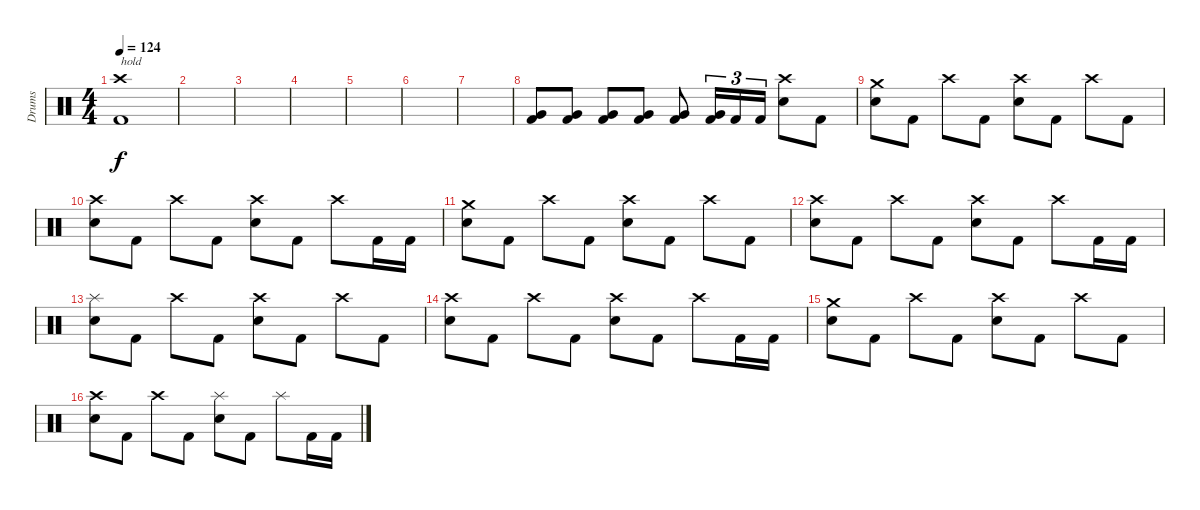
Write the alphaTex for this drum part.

\track ("Drums" "Drums") {instrument percussion}
\staff {score}
\articulation defaults
\ts (4 4)
\tempo 124
\clef neutral
\ks c
("Crash high (hit)" "Kick (hit) 2").1{txt "hold" dy f} |
|
|
|
|
|
|
("Very Low Tom (hit)" "Kick (hit) 2").8 ("Very Low Tom (hit)" "Kick (hit) 2").8 ("Very Low Tom (hit)" "Kick (hit) 2").8 ("Very Low Tom (hit)" "Kick (hit) 2").8 ("Very Low Tom (hit)" "Kick (hit) 2").8 ("Very Low Tom (hit)" "Kick (hit) 2").16{tu (3 2)} "Kick (hit) 2".16{tu (3 2)} "Kick (hit) 2".16{tu (3 2)} ("Crash high (hit)" "Electric Snare (hit)").8 "Kick (hit) 2".8 |
("Crash medium (hit)" "Electric Snare (hit)").8 "Kick (hit) 2".8 "Crash high (hit)".8 "Kick (hit) 2".8 ("Crash high (hit)" "Electric Snare (hit)").8 "Kick (hit) 2".8 "Crash high (hit)".8 "Kick (hit) 2".8 |
("Crash high (hit)" "Electric Snare (hit)").8 "Kick (hit) 2".8 "Crash high (hit)".8 "Kick (hit) 2".8 ("Crash high (hit)" "Electric Snare (hit)").8 "Kick (hit) 2".8 "Crash high (hit)".8 "Kick (hit) 2".16 "Kick (hit) 2".16 |
("Crash medium (hit)" "Electric Snare (hit)").8 "Kick (hit) 2".8 "Crash high (hit)".8 "Kick (hit) 2".8 ("Crash high (hit)" "Electric Snare (hit)").8 "Kick (hit) 2".8 "Crash high (hit)".8 "Kick (hit) 2".8 |
("Crash high (hit)" "Electric Snare (hit)").8 "Kick (hit) 2".8 "Crash high (hit)".8 "Kick (hit) 2".8 ("Crash high (hit)" "Electric Snare (hit)").8 "Kick (hit) 2".8 "Crash high (hit)".8 "Kick (hit) 2".16 "Kick (hit) 2".16 |
("Splash (hit)" "Electric Snare (hit)").8 "Kick (hit) 2".8 "Crash high (hit)".8 "Kick (hit) 2".8 ("Crash high (hit)" "Electric Snare (hit)").8 "Kick (hit) 2".8 "Crash high (hit)".8 "Kick (hit) 2".8 |
("Crash high (hit)" "Electric Snare (hit)").8 "Kick (hit) 2".8 "Crash high (hit)".8 "Kick (hit) 2".8 ("Crash high (hit)" "Electric Snare (hit)").8 "Kick (hit) 2".8 "Crash high (hit)".8 "Kick (hit) 2".16 "Kick (hit) 2".16 |
("Crash medium (hit)" "Electric Snare (hit)").8 "Kick (hit) 2".8 "Crash high (hit)".8 "Kick (hit) 2".8 ("Crash high (hit)" "Electric Snare (hit)").8 "Kick (hit) 2".8 "Crash high (hit)".8 "Kick (hit) 2".8 |
("Crash high (hit)" "Electric Snare (hit)").8 "Kick (hit) 2".8 "Crash high (hit)".8 "Kick (hit) 2".8 ("Splash (hit)" "Electric Snare (hit)").8 "Kick (hit) 2".8 "Splash (hit)".8 "Kick (hit) 2".16 "Kick (hit) 2".16
